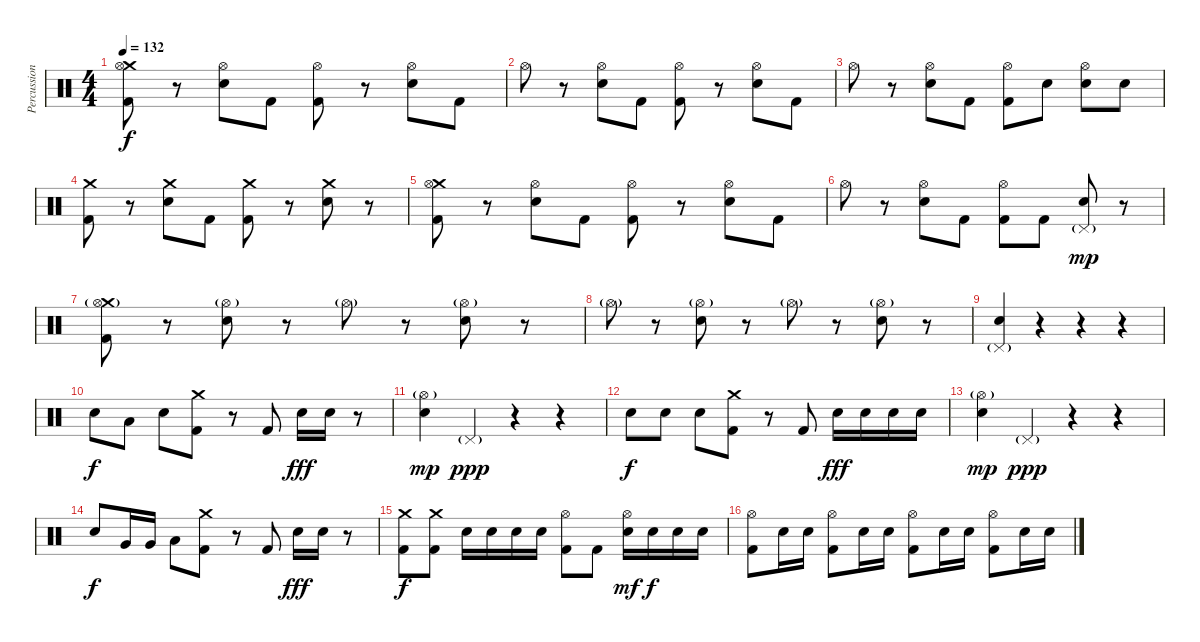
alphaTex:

\track ("Percussion" "Percussion") {instrument percussion}
\staff {score}
\articulation defaults
\ts (4 4)
\tempo 132
\clef neutral
\ks c
("Crash medium (hit)" "Hi-Hat (open)" "Kick (hit) 2").8{dy f} r.8 ("Hi-Hat (open)" "Snare (hit) 2").8 "Kick (hit) 2".8 ("Hi-Hat (open)" "Kick (hit) 2").8 r.8 ("Hi-Hat (open)" "Snare (hit) 2").8 "Kick (hit) 2".8 |
"Hi-Hat (open)".8 r.8 ("Hi-Hat (open)" "Snare (hit) 2").8 "Kick (hit) 2".8 ("Hi-Hat (open)" "Kick (hit) 2").8 r.8 ("Hi-Hat (open)" "Snare (hit) 2").8 "Kick (hit) 2".8 |
"Hi-Hat (open)".8 r.8 ("Hi-Hat (open)" "Snare (hit) 2").8 "Kick (hit) 2".8 ("Hi-Hat (open)" "Kick (hit) 2").8 "Snare (hit) 2".8 ("Hi-Hat (open)" "Snare (hit) 2").8 "Snare (hit) 2".8 |
("Crash medium (hit)" "Kick (hit) 2").8 r.8 ("Crash medium (hit)" "Snare (hit) 2").8 "Kick (hit) 2".8 ("Crash medium (hit)" "Kick (hit) 2").8 r.8 ("Crash medium (hit)" "Snare (hit) 2").8 r.8 |
("Crash medium (hit)" "Hi-Hat (open)" "Kick (hit) 2").8 r.8 ("Hi-Hat (open)" "Snare (hit) 2").8 "Kick (hit) 2".8 ("Hi-Hat (open)" "Kick (hit) 2").8 r.8 ("Hi-Hat (open)" "Snare (hit) 2").8 "Kick (hit) 2".8 |
"Hi-Hat (open)".8 r.8 ("Hi-Hat (open)" "Snare (hit) 2").8 "Kick (hit) 2".8 ("Hi-Hat (open)" "Kick (hit) 2").8 "Kick (hit) 2".8 ("Pedal Hi-Hat (hit)"{g} "Snare (hit) 2").8{dy mp} r.8 |
("Crash medium (hit)" "Hi-Hat (open)"{g} "Kick (hit) 2").8 r.8 ("Hi-Hat (open)"{g} "Snare (hit) 2").8 r.8 "Hi-Hat (open)"{g}.8 r.8 ("Hi-Hat (open)"{g} "Snare (hit) 2").8 r.8 |
"Hi-Hat (open)"{g}.8 r.8 ("Hi-Hat (open)"{g} "Snare (hit) 2").8 r.8 "Hi-Hat (open)"{g}.8 r.8 ("Hi-Hat (open)"{g} "Snare (hit) 2").8 r.8 |
("Pedal Hi-Hat (hit)"{g} "Snare (hit) 2").4 r.4 r.4 r.4 |
"Snare (hit) 2".8{dy f} "Low Floor Tom (hit)".8 "Snare (hit) 2".8 ("Crash medium (hit)" "Kick (hit) 2").8 r.8 "Kick (hit) 2".8 "Snare (hit) 2".16{dy fff} "Snare (hit) 2".16 r.8 |
("Hi-Hat (open)"{g} "Snare (hit) 2").4{dy mp} "Pedal Hi-Hat (hit)"{g}.4{dy ppp} r.4 r.4 |
"Snare (hit) 2".8{dy f} "Snare (hit) 2".8 "Snare (hit) 2".8 ("Crash medium (hit)" "Kick (hit) 2").8 r.8 "Kick (hit) 2".8 "Snare (hit) 2".16{dy fff} "Snare (hit) 2".16 "Snare (hit) 2".16 "Snare (hit) 2".16 |
("Hi-Hat (open)"{g} "Snare (hit) 2").4{dy mp} "Pedal Hi-Hat (hit)"{g}.4{dy ppp} r.4 r.4 |
"Snare (hit) 2".8{dy f} "Very Low Tom (hit)".16 "Very Low Tom (hit)".16 "Low Floor Tom (hit)".8 ("Crash medium (hit)" "Kick (hit) 2").8 r.8 "Kick (hit) 2".8 "Snare (hit) 2".16{dy fff} "Snare (hit) 2".16 r.8 |
("Crash medium (hit)" "Kick (hit) 2").8{dy f} ("Crash medium (hit)" "Kick (hit) 2").8 "Snare (hit) 2".16 "Snare (hit) 2".16 "Snare (hit) 2".16 "Snare (hit) 2".16 ("Hi-Hat (open)" "Kick (hit) 2").8 "Kick (hit) 2".8 ("Hi-Hat (open)" "Snare (hit) 2").16{dy mf} "Snare (hit) 2".16{dy f} "Snare (hit) 2".16 "Snare (hit) 2".16 |
("Hi-Hat (open)" "Kick (hit) 2").8 "Snare (hit) 2".16 "Snare (hit) 2".16 ("Hi-Hat (open)" "Kick (hit) 2").8 "Snare (hit) 2".16 "Snare (hit) 2".16 ("Hi-Hat (open)" "Kick (hit) 2").8 "Snare (hit) 2".16 "Snare (hit) 2".16 ("Hi-Hat (open)" "Kick (hit) 2").8 "Snare (hit) 2".16 "Snare (hit) 2".16
